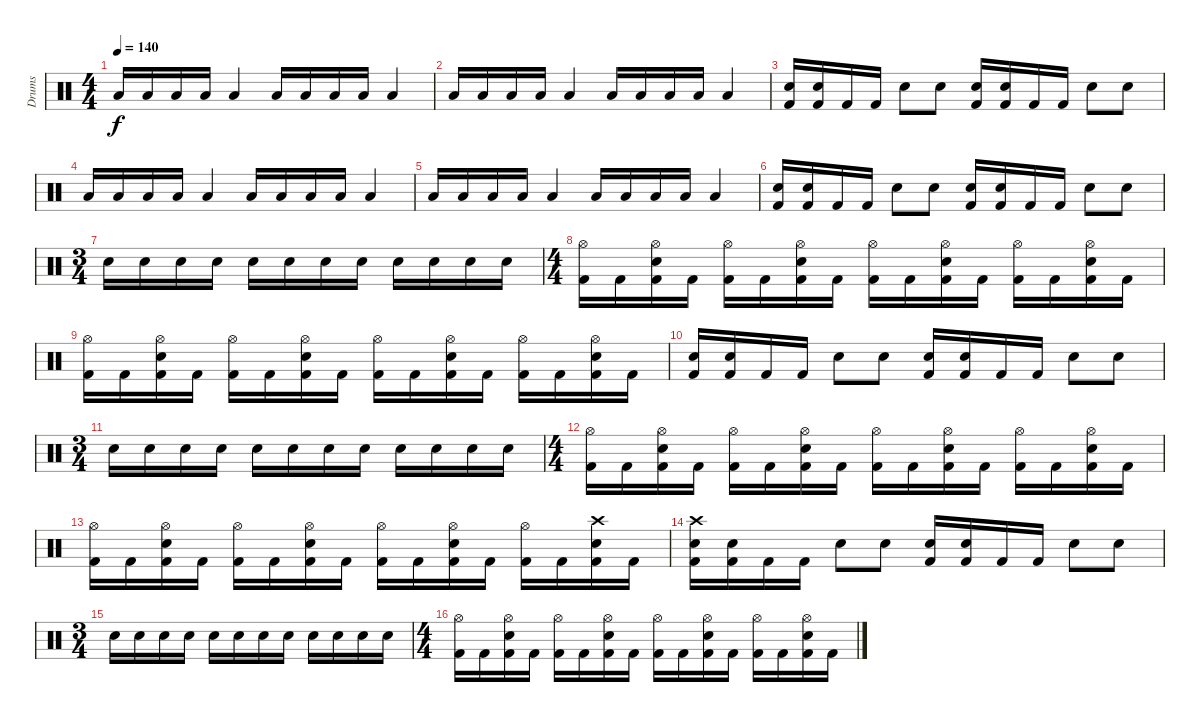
\track ("Drums" "Drums") {instrument percussion}
\staff {score}
\articulation defaults
\ts (4 4)
\tempo 140
\clef neutral
\ks c "Low Tom (hit)".16{dy f} "Low Tom (hit)".16 "Low Tom (hit)".16 "Low Tom (hit)".16 "Low Tom (hit)".4 "Low Tom (hit)".16 "Low Tom (hit)".16 "Low Tom (hit)".16 "Low Tom (hit)".16 "Low Tom (hit)".4
|
"Low Tom (hit)".16 "Low Tom (hit)".16 "Low Tom (hit)".16 "Low Tom (hit)".16 "Low Tom (hit)".4 "Low Tom (hit)".16 "Low Tom (hit)".16 "Low Tom (hit)".16 "Low Tom (hit)".16 "Low Tom (hit)".4 |
("Electric Snare (hit)" "Kick (hit) 2").16 ("Electric Snare (hit)" "Kick (hit) 2").16 "Kick (hit) 2".16 "Kick (hit) 2".16 "Electric Snare (hit)".8 "Electric Snare (hit)".8 ("Electric Snare (hit)" "Kick (hit) 2").16 ("Electric Snare (hit)" "Kick (hit) 2").16 "Kick (hit) 2".16 "Kick (hit) 2".16 "Electric Snare (hit)".8 "Electric Snare (hit)".8 |
"Low Tom (hit)".16 "Low Tom (hit)".16 "Low Tom (hit)".16 "Low Tom (hit)".16 "Low Tom (hit)".4 "Low Tom (hit)".16 "Low Tom (hit)".16 "Low Tom (hit)".16 "Low Tom (hit)".16 "Low Tom (hit)".4 |
"Low Tom (hit)".16 "Low Tom (hit)".16 "Low Tom (hit)".16 "Low Tom (hit)".16 "Low Tom (hit)".4 "Low Tom (hit)".16 "Low Tom (hit)".16 "Low Tom (hit)".16 "Low Tom (hit)".16 "Low Tom (hit)".4 |
("Electric Snare (hit)" "Kick (hit) 2").16 ("Electric Snare (hit)" "Kick (hit) 2").16 "Kick (hit) 2".16 "Kick (hit) 2".16 "Electric Snare (hit)".8 "Electric Snare (hit)".8 ("Electric Snare (hit)" "Kick (hit) 2").16 ("Electric Snare (hit)" "Kick (hit) 2").16 "Kick (hit) 2".16 "Kick (hit) 2".16 "Electric Snare (hit)".8 "Electric Snare (hit)".8 |
\ts (3 4)
"Electric Snare (hit)".16 "Electric Snare (hit)".16 "Electric Snare (hit)".16 "Electric Snare (hit)".16 "Electric Snare (hit)".16 "Electric Snare (hit)".16 "Electric Snare (hit)".16 "Electric Snare (hit)".16 "Electric Snare (hit)".16 "Electric Snare (hit)".16 "Electric Snare (hit)".16 "Electric Snare (hit)".16 |
\ts (4 4)
("Hi-Hat (open)" "Kick (hit) 2").16 "Kick (hit) 2".16 ("Hi-Hat (open)" "Electric Snare (hit)" "Kick (hit) 2").16 "Kick (hit) 2".16 ("Hi-Hat (open)" "Kick (hit) 2").16 "Kick (hit) 2".16 ("Hi-Hat (open)" "Electric Snare (hit)" "Kick (hit) 2").16 "Kick (hit) 2".16 ("Hi-Hat (open)" "Kick (hit) 2").16 "Kick (hit) 2".16 ("Hi-Hat (open)" "Electric Snare (hit)" "Kick (hit) 2").16 "Kick (hit) 2".16 ("Hi-Hat (open)" "Kick (hit) 2").16 "Kick (hit) 2".16 ("Hi-Hat (open)" "Electric Snare (hit)" "Kick (hit) 2").16 "Kick (hit) 2".16 |
("Hi-Hat (open)" "Kick (hit) 2").16 "Kick (hit) 2".16 ("Hi-Hat (open)" "Electric Snare (hit)" "Kick (hit) 2").16 "Kick (hit) 2".16 ("Hi-Hat (open)" "Kick (hit) 2").16 "Kick (hit) 2".16 ("Hi-Hat (open)" "Electric Snare (hit)" "Kick (hit) 2").16 "Kick (hit) 2".16 ("Hi-Hat (open)" "Kick (hit) 2").16 "Kick (hit) 2".16 ("Hi-Hat (open)" "Electric Snare (hit)" "Kick (hit) 2").16 "Kick (hit) 2".16 ("Hi-Hat (open)" "Kick (hit) 2").16 "Kick (hit) 2".16 ("Hi-Hat (open)" "Electric Snare (hit)" "Kick (hit) 2").16 "Kick (hit) 2".16 |
("Electric Snare (hit)" "Kick (hit) 2").16 ("Electric Snare (hit)" "Kick (hit) 2").16 "Kick (hit) 2".16 "Kick (hit) 2".16 "Electric Snare (hit)".8 "Electric Snare (hit)".8 ("Electric Snare (hit)" "Kick (hit) 2").16 ("Electric Snare (hit)" "Kick (hit) 2").16 "Kick (hit) 2".16 "Kick (hit) 2".16 "Electric Snare (hit)".8 "Electric Snare (hit)".8 |
\ts (3 4)
"Electric Snare (hit)".16 "Electric Snare (hit)".16 "Electric Snare (hit)".16 "Electric Snare (hit)".16 "Electric Snare (hit)".16 "Electric Snare (hit)".16 "Electric Snare (hit)".16 "Electric Snare (hit)".16 "Electric Snare (hit)".16 "Electric Snare (hit)".16 "Electric Snare (hit)".16 "Electric Snare (hit)".16 |
\ts (4 4)
("Hi-Hat (open)" "Kick (hit) 2").16 "Kick (hit) 2".16 ("Hi-Hat (open)" "Electric Snare (hit)" "Kick (hit) 2").16 "Kick (hit) 2".16 ("Hi-Hat (open)" "Kick (hit) 2").16 "Kick (hit) 2".16 ("Hi-Hat (open)" "Electric Snare (hit)" "Kick (hit) 2").16 "Kick (hit) 2".16 ("Hi-Hat (open)" "Kick (hit) 2").16 "Kick (hit) 2".16 ("Hi-Hat (open)" "Electric Snare (hit)" "Kick (hit) 2").16 "Kick (hit) 2".16 ("Hi-Hat (open)" "Kick (hit) 2").16 "Kick (hit) 2".16 ("Hi-Hat (open)" "Electric Snare (hit)" "Kick (hit) 2").16 "Kick (hit) 2".16 |
("Hi-Hat (open)" "Kick (hit) 2").16 "Kick (hit) 2".16 ("Hi-Hat (open)" "Electric Snare (hit)" "Kick (hit) 2").16 "Kick (hit) 2".16 ("Hi-Hat (open)" "Kick (hit) 2").16 "Kick (hit) 2".16 ("Hi-Hat (open)" "Electric Snare (hit)" "Kick (hit) 2").16 "Kick (hit) 2".16 ("Hi-Hat (open)" "Kick (hit) 2").16 "Kick (hit) 2".16 ("Hi-Hat (open)" "Electric Snare (hit)" "Kick (hit) 2").16 "Kick (hit) 2".16 ("Hi-Hat (open)" "Kick (hit) 2").16 "Kick (hit) 2".16 ("Crash high (hit)" "Electric Snare (hit)" "Kick (hit) 2").16 "Kick (hit) 2".16 |
("Crash high (hit)" "Electric Snare (hit)" "Kick (hit) 2").16 ("Electric Snare (hit)" "Kick (hit) 2").16 "Kick (hit) 2".16 "Kick (hit) 2".16 "Electric Snare (hit)".8 "Electric Snare (hit)".8 ("Electric Snare (hit)" "Kick (hit) 2").16 ("Electric Snare (hit)" "Kick (hit) 2").16 "Kick (hit) 2".16 "Kick (hit) 2".16 "Electric Snare (hit)".8 "Electric Snare (hit)".8 |
\ts (3 4)
"Electric Snare (hit)".16 "Electric Snare (hit)".16 "Electric Snare (hit)".16 "Electric Snare (hit)".16 "Electric Snare (hit)".16 "Electric Snare (hit)".16 "Electric Snare (hit)".16 "Electric Snare (hit)".16 "Electric Snare (hit)".16 "Electric Snare (hit)".16 "Electric Snare (hit)".16 "Electric Snare (hit)".16 |
\ts (4 4)
("Hi-Hat (open)" "Kick (hit) 2").16 "Kick (hit) 2".16 ("Hi-Hat (open)" "Electric Snare (hit)" "Kick (hit) 2").16 "Kick (hit) 2".16 ("Hi-Hat (open)" "Kick (hit) 2").16 "Kick (hit) 2".16 ("Hi-Hat (open)" "Electric Snare (hit)" "Kick (hit) 2").16 "Kick (hit) 2".16 ("Hi-Hat (open)" "Kick (hit) 2").16 "Kick (hit) 2".16 ("Hi-Hat (open)" "Electric Snare (hit)" "Kick (hit) 2").16 "Kick (hit) 2".16 ("Hi-Hat (open)" "Kick (hit) 2").16 "Kick (hit) 2".16 ("Hi-Hat (open)" "Electric Snare (hit)" "Kick (hit) 2").16 "Kick (hit) 2".16
